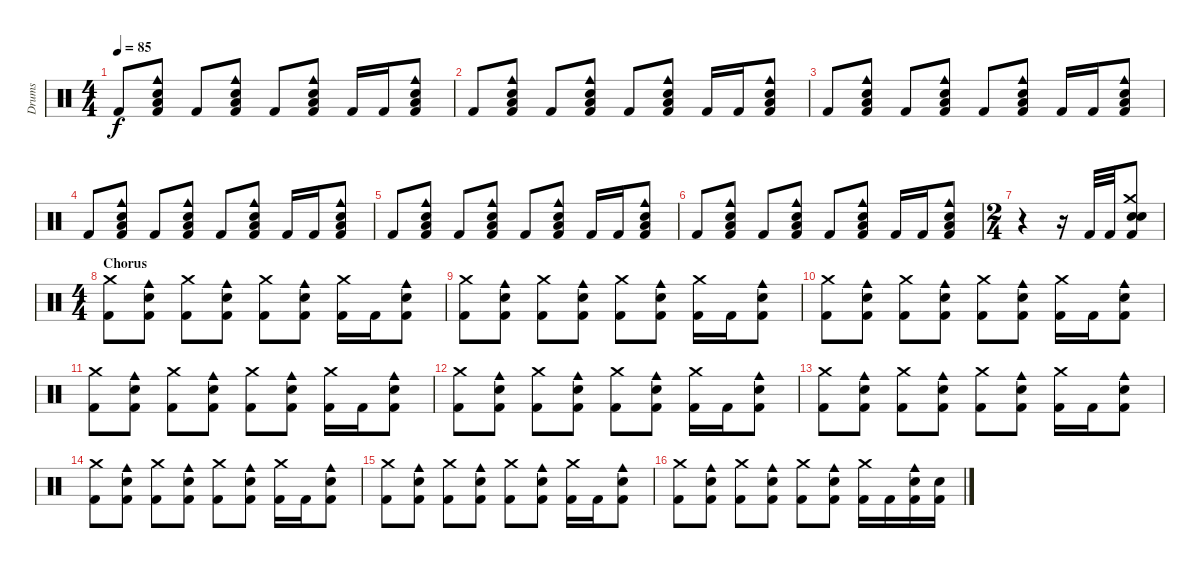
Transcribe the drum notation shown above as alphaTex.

\track ("Drums" "Drums") {instrument percussion}
\staff {score}
\articulation defaults
\ts (4 4)
\tempo 85
\clef neutral
\ks c "Kick (hit) 2".8{dy f}
("Cowbell medium (hit)" "Electric Snare (hit)" "Low Tom (hit)" "Kick (hit) 2").8 "Kick (hit) 2".8 ("Cowbell medium (hit)" "Electric Snare (hit)" "Low Tom (hit)" "Kick (hit) 2").8 "Kick (hit) 2".8 ("Cowbell medium (hit)" "Electric Snare (hit)" "Low Tom (hit)" "Kick (hit) 2").8 "Kick (hit) 2".16 "Kick (hit) 2".16 ("Cowbell medium (hit)" "Electric Snare (hit)" "Low Tom (hit)" "Kick (hit) 2").8 |
"Kick (hit) 2".8 ("Cowbell medium (hit)" "Electric Snare (hit)" "Low Tom (hit)" "Kick (hit) 2").8 "Kick (hit) 2".8 ("Cowbell medium (hit)" "Electric Snare (hit)" "Low Tom (hit)" "Kick (hit) 2").8 "Kick (hit) 2".8 ("Cowbell medium (hit)" "Electric Snare (hit)" "Low Tom (hit)" "Kick (hit) 2").8 "Kick (hit) 2".16 "Kick (hit) 2".16 ("Cowbell medium (hit)" "Electric Snare (hit)" "Low Tom (hit)" "Kick (hit) 2").8 |
"Kick (hit) 2".8 ("Cowbell medium (hit)" "Electric Snare (hit)" "Low Tom (hit)" "Kick (hit) 2").8 "Kick (hit) 2".8 ("Cowbell medium (hit)" "Electric Snare (hit)" "Low Tom (hit)" "Kick (hit) 2").8 "Kick (hit) 2".8 ("Cowbell medium (hit)" "Electric Snare (hit)" "Low Tom (hit)" "Kick (hit) 2").8 "Kick (hit) 2".16 "Kick (hit) 2".16 ("Cowbell medium (hit)" "Electric Snare (hit)" "Low Tom (hit)" "Kick (hit) 2").8 |
"Kick (hit) 2".8 ("Cowbell medium (hit)" "Electric Snare (hit)" "Low Tom (hit)" "Kick (hit) 2").8 "Kick (hit) 2".8 ("Cowbell medium (hit)" "Electric Snare (hit)" "Low Tom (hit)" "Kick (hit) 2").8 "Kick (hit) 2".8 ("Cowbell medium (hit)" "Electric Snare (hit)" "Low Tom (hit)" "Kick (hit) 2").8 "Kick (hit) 2".16 "Kick (hit) 2".16 ("Cowbell medium (hit)" "Electric Snare (hit)" "Low Tom (hit)" "Kick (hit) 2").8 |
"Kick (hit) 2".8 ("Cowbell medium (hit)" "Electric Snare (hit)" "Low Tom (hit)" "Kick (hit) 2").8 "Kick (hit) 2".8 ("Cowbell medium (hit)" "Electric Snare (hit)" "Low Tom (hit)" "Kick (hit) 2").8 "Kick (hit) 2".8 ("Cowbell medium (hit)" "Electric Snare (hit)" "Low Tom (hit)" "Kick (hit) 2").8 "Kick (hit) 2".16 "Kick (hit) 2".16 ("Cowbell medium (hit)" "Electric Snare (hit)" "Low Tom (hit)" "Kick (hit) 2").8 |
"Kick (hit) 2".8 ("Cowbell medium (hit)" "Electric Snare (hit)" "Low Tom (hit)" "Kick (hit) 2").8 "Kick (hit) 2".8 ("Cowbell medium (hit)" "Electric Snare (hit)" "Low Tom (hit)" "Kick (hit) 2").8 "Kick (hit) 2".8 ("Cowbell medium (hit)" "Electric Snare (hit)" "Low Tom (hit)" "Kick (hit) 2").8 "Kick (hit) 2".16 "Kick (hit) 2".16 ("Cowbell medium (hit)" "Electric Snare (hit)" "Low Tom (hit)" "Kick (hit) 2").8 |
\ts (2 4)
r.4 r.16 "Kick (hit) 2".32 "Kick (hit) 2".32 ("Crash medium (hit)" "Electric Snare (hit)" "Snare (hit) 2" "Kick (hit) 2").8 |
\ts (4 4)
\section ("" "Chorus")
("Crash medium (hit)" "Kick (hit) 2").8 ("Cowbell medium (hit)" "Electric Snare (hit)" "Kick (hit) 2").8 ("Crash medium (hit)" "Kick (hit) 2").8 ("Cowbell medium (hit)" "Electric Snare (hit)" "Kick (hit) 2").8 ("Crash medium (hit)" "Kick (hit) 2").8 ("Cowbell medium (hit)" "Electric Snare (hit)" "Kick (hit) 2").8 ("Crash medium (hit)" "Kick (hit) 2").16 "Kick (hit) 2".16 ("Cowbell medium (hit)" "Electric Snare (hit)" "Kick (hit) 2").8 |
("Crash medium (hit)" "Kick (hit) 2").8 ("Cowbell medium (hit)" "Electric Snare (hit)" "Kick (hit) 2").8 ("Crash medium (hit)" "Kick (hit) 2").8 ("Cowbell medium (hit)" "Electric Snare (hit)" "Kick (hit) 2").8 ("Crash medium (hit)" "Kick (hit) 2").8 ("Cowbell medium (hit)" "Electric Snare (hit)" "Kick (hit) 2").8 ("Crash medium (hit)" "Kick (hit) 2").16 "Kick (hit) 2".16 ("Cowbell medium (hit)" "Electric Snare (hit)" "Kick (hit) 2").8 |
("Crash medium (hit)" "Kick (hit) 2").8 ("Cowbell medium (hit)" "Electric Snare (hit)" "Kick (hit) 2").8 ("Crash medium (hit)" "Kick (hit) 2").8 ("Cowbell medium (hit)" "Electric Snare (hit)" "Kick (hit) 2").8 ("Crash medium (hit)" "Kick (hit) 2").8 ("Cowbell medium (hit)" "Electric Snare (hit)" "Kick (hit) 2").8 ("Crash medium (hit)" "Kick (hit) 2").16 "Kick (hit) 2".16 ("Cowbell medium (hit)" "Electric Snare (hit)" "Kick (hit) 2").8 |
("Crash medium (hit)" "Kick (hit) 2").8 ("Cowbell medium (hit)" "Electric Snare (hit)" "Kick (hit) 2").8 ("Crash medium (hit)" "Kick (hit) 2").8 ("Cowbell medium (hit)" "Electric Snare (hit)" "Kick (hit) 2").8 ("Crash medium (hit)" "Kick (hit) 2").8 ("Cowbell medium (hit)" "Electric Snare (hit)" "Kick (hit) 2").8 ("Crash medium (hit)" "Kick (hit) 2").16 "Kick (hit) 2".16 ("Cowbell medium (hit)" "Electric Snare (hit)" "Kick (hit) 2").8 |
("Crash medium (hit)" "Kick (hit) 2").8 ("Cowbell medium (hit)" "Electric Snare (hit)" "Kick (hit) 2").8 ("Crash medium (hit)" "Kick (hit) 2").8 ("Cowbell medium (hit)" "Electric Snare (hit)" "Kick (hit) 2").8 ("Crash medium (hit)" "Kick (hit) 2").8 ("Cowbell medium (hit)" "Electric Snare (hit)" "Kick (hit) 2").8 ("Crash medium (hit)" "Kick (hit) 2").16 "Kick (hit) 2".16 ("Cowbell medium (hit)" "Electric Snare (hit)" "Kick (hit) 2").8 |
("Crash medium (hit)" "Kick (hit) 2").8 ("Cowbell medium (hit)" "Electric Snare (hit)" "Kick (hit) 2").8 ("Crash medium (hit)" "Kick (hit) 2").8 ("Cowbell medium (hit)" "Electric Snare (hit)" "Kick (hit) 2").8 ("Crash medium (hit)" "Kick (hit) 2").8 ("Cowbell medium (hit)" "Electric Snare (hit)" "Kick (hit) 2").8 ("Crash medium (hit)" "Kick (hit) 2").16 "Kick (hit) 2".16 ("Cowbell medium (hit)" "Electric Snare (hit)" "Kick (hit) 2").8 |
("Crash medium (hit)" "Kick (hit) 2").8 ("Cowbell medium (hit)" "Electric Snare (hit)" "Kick (hit) 2").8 ("Crash medium (hit)" "Kick (hit) 2").8 ("Cowbell medium (hit)" "Electric Snare (hit)" "Kick (hit) 2").8 ("Crash medium (hit)" "Kick (hit) 2").8 ("Cowbell medium (hit)" "Electric Snare (hit)" "Kick (hit) 2").8 ("Crash medium (hit)" "Kick (hit) 2").16 "Kick (hit) 2".16 ("Cowbell medium (hit)" "Electric Snare (hit)" "Kick (hit) 2").8 |
("Crash medium (hit)" "Kick (hit) 2").8 ("Cowbell medium (hit)" "Electric Snare (hit)" "Kick (hit) 2").8 ("Crash medium (hit)" "Kick (hit) 2").8 ("Cowbell medium (hit)" "Electric Snare (hit)" "Kick (hit) 2").8 ("Crash medium (hit)" "Kick (hit) 2").8 ("Cowbell medium (hit)" "Electric Snare (hit)" "Kick (hit) 2").8 ("Crash medium (hit)" "Kick (hit) 2").16 "Kick (hit) 2".16 ("Cowbell medium (hit)" "Electric Snare (hit)" "Kick (hit) 2").8 |
("Crash medium (hit)" "Kick (hit) 2").8 ("Cowbell medium (hit)" "Electric Snare (hit)" "Kick (hit) 2").8 ("Crash medium (hit)" "Kick (hit) 2").8 ("Cowbell medium (hit)" "Electric Snare (hit)" "Kick (hit) 2").8 ("Crash medium (hit)" "Kick (hit) 2").8 ("Cowbell medium (hit)" "Electric Snare (hit)" "Kick (hit) 2").8 ("Crash medium (hit)" "Kick (hit) 2").16 "Kick (hit) 2".16 ("Cowbell medium (hit)" "Electric Snare (hit)" "Kick (hit) 2").16 ("Electric Snare (hit)" "Kick (hit) 2").16
